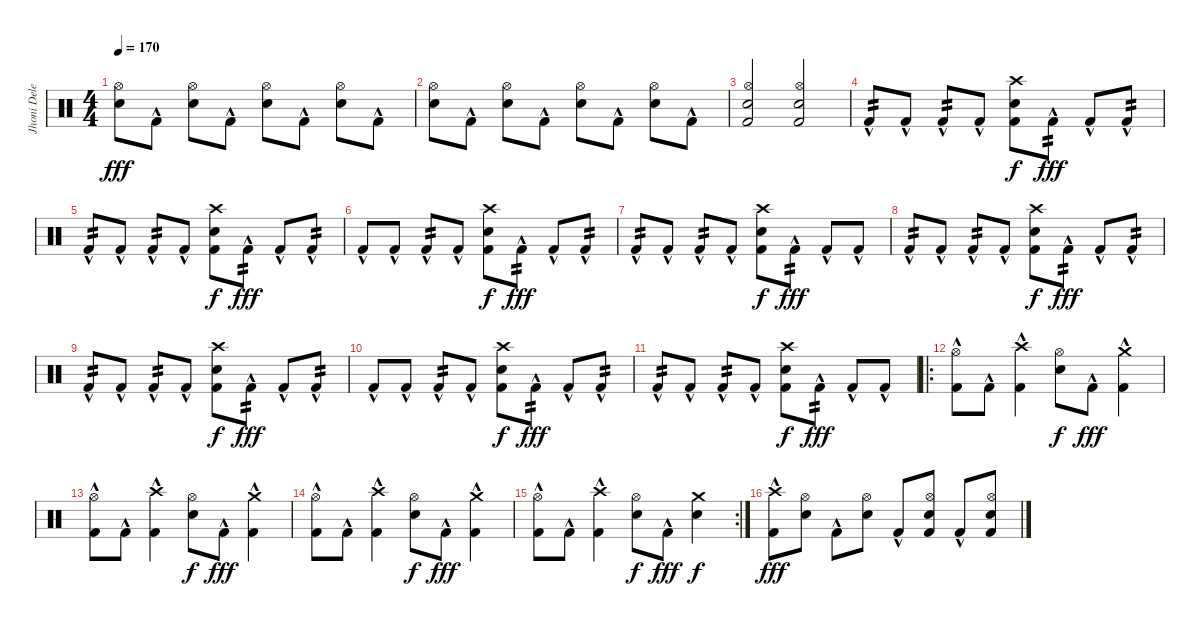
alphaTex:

\track ("Jhoni Delenger" "Jhoni Dele") {instrument percussion}
\staff {score}
\articulation defaults
\ts (4 4)
\tempo 170
\clef neutral
\ks c
("Snare (hit) 2" "Hi-Hat (open)").8{dy fff} "Kick (hit) 2"{hac}.8 ("Snare (hit) 2" "Hi-Hat (open)").8 "Kick (hit) 2"{hac}.8 ("Snare (hit) 2" "Hi-Hat (open)").8 "Kick (hit) 2"{hac}.8 ("Snare (hit) 2" "Hi-Hat (open)").8 "Kick (hit) 2"{hac}.8 |
("Snare (hit) 2" "Hi-Hat (open)").8 "Kick (hit) 2"{hac}.8 ("Snare (hit) 2" "Hi-Hat (open)").8 "Kick (hit) 2"{hac}.8 ("Snare (hit) 2" "Hi-Hat (open)").8 "Kick (hit) 2"{hac}.8 ("Snare (hit) 2" "Hi-Hat (open)").8 "Kick (hit) 2"{hac}.8 |
("Snare (hit) 2" "Hi-Hat (open)" "Kick (hit) 2").2 ("Snare (hit) 2" "Hi-Hat (open)" "Kick (hit) 2").2 |
"Kick (hit) 2"{hac}.8{tp 2} "Kick (hit) 2"{hac}.8 "Kick (hit) 2"{hac}.8{tp 2} "Kick (hit) 2"{hac}.8 ("Crash high (hit)" "Snare (hit) 2" "Kick (hit) 2").8{dy f} "Kick (hit) 2"{hac}.8{tp 2 dy fff} "Kick (hit) 2"{hac}.8 "Kick (hit) 2"{hac}.8{tp 2} |
"Kick (hit) 2"{hac}.8{tp 2} "Kick (hit) 2"{hac}.8 "Kick (hit) 2"{hac}.8{tp 2} "Kick (hit) 2"{hac}.8 ("Crash high (hit)" "Snare (hit) 2" "Kick (hit) 2").8{dy f} "Kick (hit) 2"{hac}.8{tp 2 dy fff} "Kick (hit) 2"{hac}.8 "Kick (hit) 2"{hac}.8{tp 2} |
"Kick (hit) 2"{hac}.8 "Kick (hit) 2"{hac}.8 "Kick (hit) 2"{hac}.8{tp 2} "Kick (hit) 2"{hac}.8 ("Crash high (hit)" "Snare (hit) 2" "Kick (hit) 2").8{dy f} "Kick (hit) 2"{hac}.8{tp 2 dy fff} "Kick (hit) 2"{hac}.8 "Kick (hit) 2"{hac}.8{tp 2} |
"Kick (hit) 2"{hac}.8{tp 2} "Kick (hit) 2"{hac}.8 "Kick (hit) 2"{hac}.8{tp 2} "Kick (hit) 2"{hac}.8 ("Crash high (hit)" "Snare (hit) 2" "Kick (hit) 2").8{dy f} "Kick (hit) 2"{hac}.8{tp 2 dy fff} "Kick (hit) 2"{hac}.8 "Kick (hit) 2"{hac}.8 |
"Kick (hit) 2"{hac}.8{tp 2} "Kick (hit) 2"{hac}.8 "Kick (hit) 2"{hac}.8{tp 2} "Kick (hit) 2"{hac}.8 ("Crash high (hit)" "Snare (hit) 2" "Kick (hit) 2").8{dy f} "Kick (hit) 2"{hac}.8{tp 2 dy fff} "Kick (hit) 2"{hac}.8 "Kick (hit) 2"{hac}.8{tp 2} |
"Kick (hit) 2"{hac}.8{tp 2} "Kick (hit) 2"{hac}.8 "Kick (hit) 2"{hac}.8{tp 2} "Kick (hit) 2"{hac}.8 ("Crash high (hit)" "Snare (hit) 2" "Kick (hit) 2").8{dy f} "Kick (hit) 2"{hac}.8{tp 2 dy fff} "Kick (hit) 2"{hac}.8 "Kick (hit) 2"{hac}.8{tp 2} |
"Kick (hit) 2"{hac}.8 "Kick (hit) 2"{hac}.8 "Kick (hit) 2"{hac}.8{tp 2} "Kick (hit) 2"{hac}.8 ("Crash high (hit)" "Snare (hit) 2" "Kick (hit) 2").8{dy f} "Kick (hit) 2"{hac}.8{tp 2 dy fff} "Kick (hit) 2"{hac}.8 "Kick (hit) 2"{hac}.8{tp 2} |
"Kick (hit) 2"{hac}.8{tp 2} "Kick (hit) 2"{hac}.8 "Kick (hit) 2"{hac}.8{tp 2} "Kick (hit) 2"{hac}.8 ("Crash high (hit)" "Snare (hit) 2" "Kick (hit) 2").8{dy f} "Kick (hit) 2"{hac}.8{tp 2 dy fff} "Kick (hit) 2"{hac}.8 "Kick (hit) 2"{hac}.8 |
\ro
("Hi-Hat (open)" "Kick (hit) 2"{hac}).8 "Kick (hit) 2"{hac}.8 ("Kick (hit) 2"{hac} "Crash high (hit)").4 ("Hi-Hat (open)" "Snare (hit) 2").8{dy f} "Kick (hit) 2"{hac}.8{dy fff} ("Kick (hit) 2"{hac} "Crash medium (hit)").4 |
("Hi-Hat (open)" "Kick (hit) 2"{hac}).8 "Kick (hit) 2"{hac}.8 ("Kick (hit) 2"{hac} "Crash high (hit)").4 ("Hi-Hat (open)" "Snare (hit) 2").8{dy f} "Kick (hit) 2"{hac}.8{dy fff} ("Kick (hit) 2"{hac} "Crash medium (hit)").4 |
("Hi-Hat (open)" "Kick (hit) 2"{hac}).8 "Kick (hit) 2"{hac}.8 ("Kick (hit) 2"{hac} "Crash high (hit)").4 ("Hi-Hat (open)" "Snare (hit) 2").8{dy f} "Kick (hit) 2"{hac}.8{dy fff} ("Kick (hit) 2"{hac} "Crash medium (hit)").4 |
\rc 2
("Hi-Hat (open)" "Kick (hit) 2"{hac}).8 "Kick (hit) 2"{hac}.8 ("Kick (hit) 2"{hac} "Crash high (hit)").4 ("Hi-Hat (open)" "Snare (hit) 2").8{dy f} "Kick (hit) 2"{hac}.8{dy fff} ("Crash medium (hit)" "Snare (hit) 2").4{dy f} |
("Kick (hit) 2"{hac} "Crash high (hit)").8{dy fff} ("Snare (hit) 2" "Hi-Hat (open)").8 "Kick (hit) 2"{hac}.8 ("Snare (hit) 2" "Hi-Hat (open)").8 "Kick (hit) 2"{hac}.8 ("Snare (hit) 2" "Hi-Hat (open)" "Kick (hit) 2").8 "Kick (hit) 2"{hac}.8 ("Snare (hit) 2" "Hi-Hat (open)" "Kick (hit) 2").8
